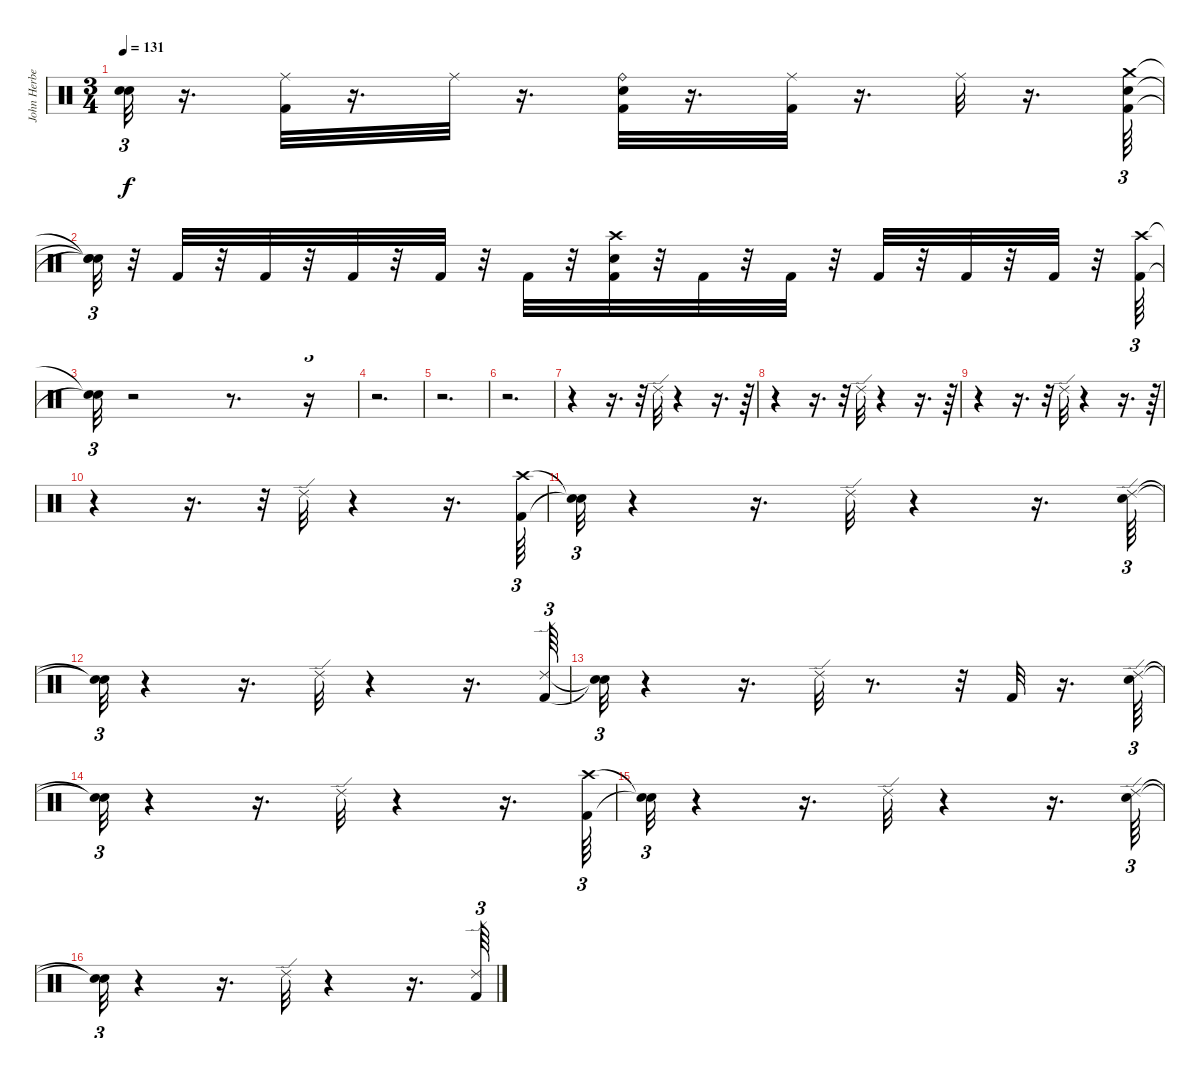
\track ("John Herbert" "John Herbe") {instrument percussion}
\staff {score}
\articulation defaults
\ts (3 4)
\tempo 131
\clef neutral
\ks c
("Snare (hit)"{t} "Snare (hit)"{t}).32{tu (3 2) dy f} r.16{d} ("Kick (hit) 2" "Ride (middle)").32 r.16{d} "Ride (middle)".32 r.16{d} ("Kick (hit) 2" "Snare (hit) 2" "Ride (bell)").32 r.16{d} ("Kick (hit) 2" "Ride (middle)").32 r.16{d} "Ride (middle)".32 r.16{d} ("Snare (hit) 2" "Kick (hit) 2" "Crash medium (hit)").64{tu (3 2)} |
("Snare (hit)"{t} "Snare (hit)"{t} "Snare (hit)"{t}).32{tu (3 2)} r.32 "Kick (hit) 2".32 r.32 "Kick (hit) 2".32 r.32 "Kick (hit) 2".32 r.32 "Kick (hit) 2".32 r.32 "Kick (hit) 2".32 r.32 ("Crash high (hit)" "Snare (hit) 2" "Kick (hit) 2").32 r.32 "Kick (hit) 2".32 r.32 "Kick (hit) 2".32 r.32 "Kick (hit) 2".32 r.32 "Kick (hit) 2".32 r.32 "Kick (hit) 2".32 r.32 ("Crash high (hit)" "Kick (hit) 2").64{tu (3 2)} |
("Snare (hit)"{t} "Snare (hit)"{t}).32{tu (3 2)} r.2 r.8{d} r.16{tu (3 2)} |
r.2{d} |
r.2{d} |
r.2{d} |
r.4 r.16{d} r.32{tu (3 2)} "Ride (edge) 2".32 r.4 r.16{d} r.64{tu (3 2)} |
r.4 r.16{d} r.32{tu (3 2)} "Ride (edge) 2".32 r.4 r.16{d} r.64{tu (3 2)} |
r.4 r.16{d} r.32{tu (3 2)} "Ride (edge) 2".32 r.4 r.16{d} r.64{tu (3 2)} |
r.4 r.16{d} r.32{tu (3 2)} "Ride (edge) 2".32 r.4 r.16{d} ("Crash high (hit)" "Kick (hit) 2").64{tu (3 2)} |
("Snare (hit)"{t} "Snare (hit)"{t}).32{tu (3 2)} r.4 r.16{d} "Ride (edge) 2".32 r.4 r.16{d} ("Ride (edge) 2" "Snare (hit) 2").64{tu (3 2)} |
("Snare (hit)"{t} "Snare (hit)"{t}).32{tu (3 2)} r.4 r.16{d} "Ride (edge) 2".32 r.4 r.16{d} ("Ride (edge) 2" "Kick (hit) 2").64{tu (3 2)} |
("Snare (hit)"{t} "Snare (hit)"{t}).32{tu (3 2)} r.4 r.16{d} "Ride (edge) 2".32 r.8{d} r.32 "Kick (hit) 2".32 r.16{d} ("Ride (edge) 2" "Snare (hit) 2").64{tu (3 2)} |
("Snare (hit)"{t} "Snare (hit)"{t}).32{tu (3 2)} r.4 r.16{d} "Ride (edge) 2".32 r.4 r.16{d} ("Crash high (hit)" "Kick (hit) 2").64{tu (3 2)} |
("Snare (hit)"{t} "Snare (hit)"{t}).32{tu (3 2)} r.4 r.16{d} "Ride (edge) 2".32 r.4 r.16{d} ("Ride (edge) 2" "Snare (hit) 2").64{tu (3 2)} |
("Snare (hit)"{t} "Snare (hit)"{t}).32{tu (3 2)} r.4 r.16{d} "Ride (edge) 2".32 r.4 r.16{d} ("Ride (edge) 2" "Kick (hit) 2").64{tu (3 2)}
